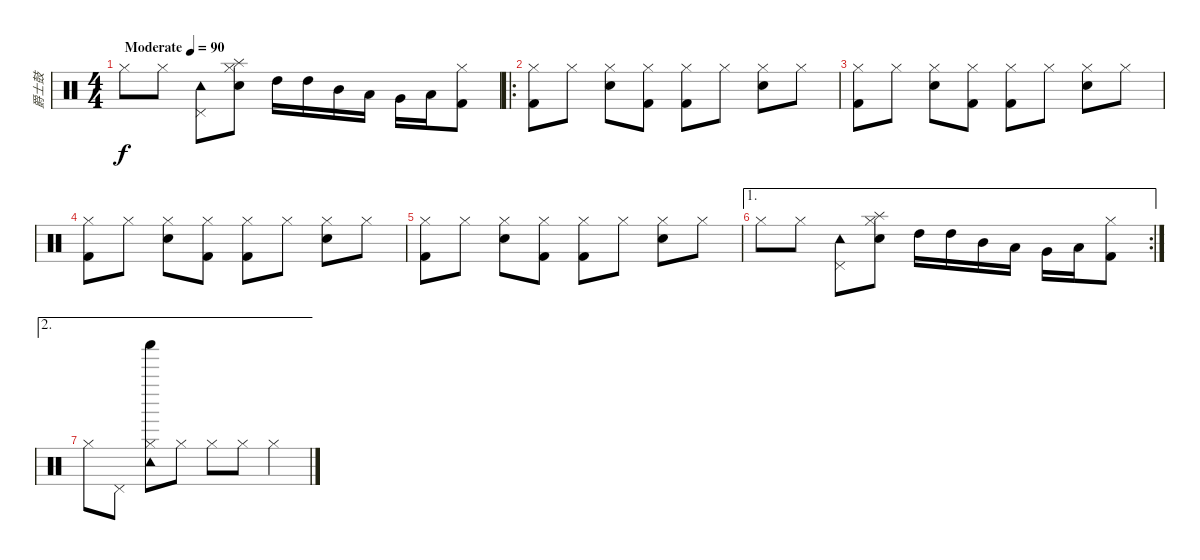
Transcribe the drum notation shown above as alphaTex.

\track ("爵士鼓" "爵士鼓") {instrument percussion}
\staff {score}
\articulation defaults
\ts (4 4)
\tempo (90 "Moderate")
\clef neutral
\ks c "Hi-Hat (closed)".8{dy f} "Hi-Hat (closed)".8
("Pedal Hi-Hat (hit)" "Tambourine (hit)").8 ("Hi-Hat (closed)" "Electric Snare (hit)" "Splash (hit)").8 "High Tom (hit)".16 "High Tom (hit)".16 "Mid Tom (hit)".16 "Low Tom (hit)".16 "Very Low Tom (hit)".16 "Low Tom (hit)".16 ("Hi-Hat (closed)" "Kick (hit) 2").8 |
\ro
("Hi-Hat (closed)" "Kick (hit) 2").8 "Hi-Hat (closed)".8 ("Hi-Hat (closed)" "Electric Snare (hit)").8 ("Hi-Hat (closed)" "Kick (hit) 2").8 ("Hi-Hat (closed)" "Kick (hit) 2").8 "Hi-Hat (closed)".8 ("Hi-Hat (closed)" "Electric Snare (hit)").8 "Hi-Hat (closed)".8 |
("Hi-Hat (closed)" "Kick (hit) 2").8 "Hi-Hat (closed)".8 ("Hi-Hat (closed)" "Electric Snare (hit)").8 ("Hi-Hat (closed)" "Kick (hit) 2").8 ("Hi-Hat (closed)" "Kick (hit) 2").8 "Hi-Hat (closed)".8 ("Hi-Hat (closed)" "Electric Snare (hit)").8 "Hi-Hat (closed)".8 |
("Hi-Hat (closed)" "Kick (hit) 2").8 "Hi-Hat (closed)".8 ("Hi-Hat (closed)" "Electric Snare (hit)").8 ("Hi-Hat (closed)" "Kick (hit) 2").8 ("Hi-Hat (closed)" "Kick (hit) 2").8 "Hi-Hat (closed)".8 ("Hi-Hat (closed)" "Electric Snare (hit)").8 "Hi-Hat (closed)".8 |
("Hi-Hat (closed)" "Kick (hit) 2").8 "Hi-Hat (closed)".8 ("Hi-Hat (closed)" "Electric Snare (hit)").8 ("Hi-Hat (closed)" "Kick (hit) 2").8 ("Hi-Hat (closed)" "Kick (hit) 2").8 "Hi-Hat (closed)".8 ("Hi-Hat (closed)" "Electric Snare (hit)").8 "Hi-Hat (closed)".8 |
\ae 1
\rc 2 "Hi-Hat (closed)".8 "Hi-Hat (closed)".8
("Pedal Hi-Hat (hit)" "Tambourine (hit)").8 ("Hi-Hat (closed)" "Electric Snare (hit)" "Splash (hit)").8 "High Tom (hit)".16 "High Tom (hit)".16 "Mid Tom (hit)".16 "Low Tom (hit)".16 "Very Low Tom (hit)".16 "Low Tom (hit)".16 ("Hi-Hat (closed)" "Kick (hit) 2").8 |
\ae 2 "Hi-Hat (closed)".8 "Pedal Hi-Hat (hit)".8
("Hi-Hat (closed)" "Tambourine (hit)" "Shaker (hit)").8 "Hi-Hat (closed)".8 "Hi-Hat (closed)".8 "Hi-Hat (closed)".8 "Hi-Hat (closed)".4
